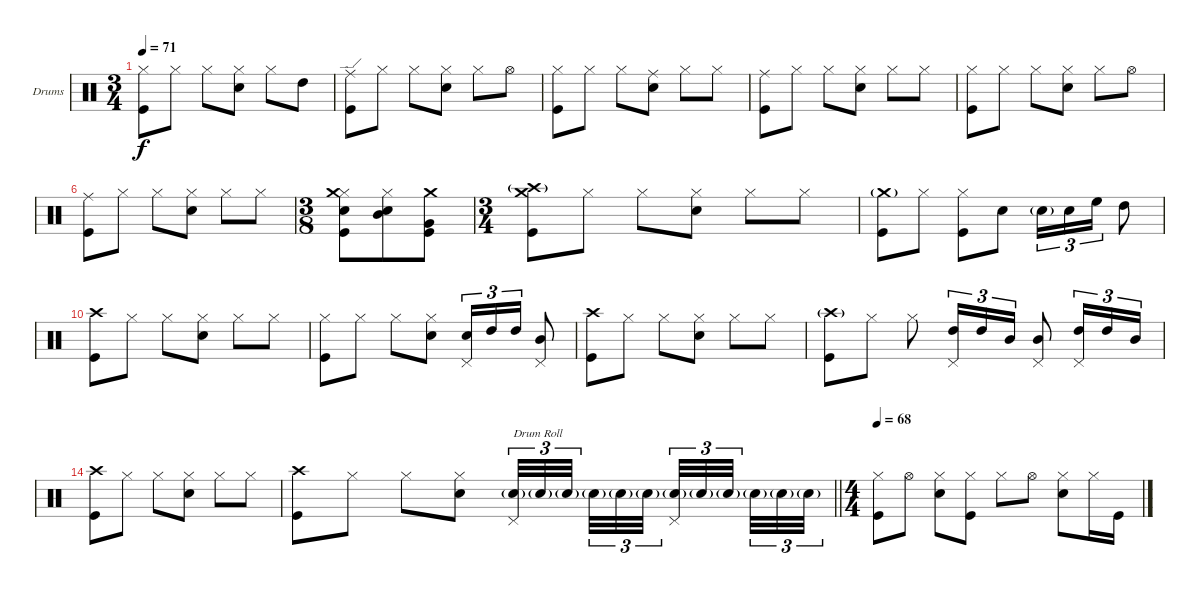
\bracketExtendMode nobrackets
\firstSystemTrackNameOrientation horizontal
\otherSystemsTrackNameOrientation horizontal
\defaultBarNumberDisplay FirstOfSystem
\track ("Drumkit" "Drums") {instrument percussion}
\staff {score}
\articulation defaults
\ts (3 4)
\tempo 71
\clef neutral
\ks c
("Hi-Hat (closed)" "Kick (hit)").8{dy f} "Hi-Hat (closed)".8 "Hi-Hat (closed)".8 ("Hi-Hat (closed)" "Snare (hit) 2").8 "Hi-Hat (closed)".8 "High Tom (hit)".8 |
("Ride (edge)" "Kick (hit)").8 "Hi-Hat (closed)".8 "Hi-Hat (closed)".8 ("Hi-Hat (closed)" "Snare (hit) 2").8 "Hi-Hat (closed)".8 "Hi-Hat (open)".8 |
("Hi-Hat (closed)" "Kick (hit)").8 "Hi-Hat (closed)".8 "Hi-Hat (closed)".8 ("Ride (middle)" "Snare (hit) 2").8 "Hi-Hat (closed)".8 "Hi-Hat (closed)".8 |
("Ride (middle)" "Kick (hit)").8 "Hi-Hat (closed)".8 "Hi-Hat (closed)".8 ("Hi-Hat (closed)" "Snare (hit) 2").8 "Hi-Hat (closed)".8 "Hi-Hat (closed)".8 |
("Hi-Hat (closed)" "Kick (hit)").8 "Hi-Hat (closed)".8 "Hi-Hat (closed)".8 ("Hi-Hat (closed)" "Snare (hit) 2").8 "Hi-Hat (closed)".8 "Hi-Hat (open)".8 |
("Ride (middle)" "Kick (hit)").8 "Hi-Hat (closed)".8 "Hi-Hat (closed)".8 ("Hi-Hat (closed)" "Snare (hit) 2").8 "Hi-Hat (closed)".8 "Hi-Hat (closed)".8 |
\ts (3 8)
("Hi-Hat (closed)" "Snare (hit) 2" "Crash medium (hit)" "Kick (hit)").8 ("Hi-Hat (closed)" "Mid Tom (hit)" "Snare (hit) 2").8 ("Kick (hit)" "Very Low Tom (hit)" "Crash medium (hit)").8 |
\ts (3 4)
("Crash high (hit)"{g} "Kick (hit)" "Crash medium (hit)").8 "Hi-Hat (closed)".8 "Hi-Hat (closed)".8 ("Hi-Hat (closed)" "Snare (hit) 2").8 "Hi-Hat (closed)".8 "Hi-Hat (closed)".8 |
("Crash medium (hit)"{g} "Kick (hit)").8 "Hi-Hat (closed)".8 ("Hi-Hat (closed)" "Kick (hit)").8 "Snare (hit) 2".8 "Snare (hit) 2"{g}.16{tu (3 2)} "Snare (hit) 2".16{tu (3 2)} "High Floor Tom (hit)".16{tu (3 2)} "High Tom (hit)".8 |
("Crash high (hit)" "Kick (hit)").8 "Hi-Hat (closed)".8 "Hi-Hat (closed)".8 ("Hi-Hat (closed)" "Snare (hit) 2").8 "Hi-Hat (closed)".8 "Hi-Hat (closed)".8 |
("Hi-Hat (closed)" "Kick (hit)").8 "Hi-Hat (closed)".8 "Hi-Hat (closed)".8 ("Hi-Hat (closed)" "Snare (hit) 2").8 ("Pedal Hi-Hat (hit)" "Snare (hit) 2").16{tu (3 2)} "High Tom (hit)".16{tu (3 2)} "High Tom (hit)".16{tu (3 2)} ("Pedal Hi-Hat (hit)" "Mid Tom (hit)").8 |
("Crash high (hit)" "Kick (hit)").8 "Hi-Hat (closed)".8 "Hi-Hat (closed)".8 ("Hi-Hat (closed)" "Snare (hit) 2").8 "Hi-Hat (closed)".8 "Hi-Hat (closed)".8 |
("Crash high (hit)"{g} "Kick (hit)").8 "Hi-Hat (closed)".8 "Hi-Hat (closed)".8 ("Pedal Hi-Hat (hit)" "High Tom (hit)").16{tu (3 2)} "High Tom (hit)".16{tu (3 2)} "Mid Tom (hit)".16{tu (3 2)} ("Pedal Hi-Hat (hit)" "Mid Tom (hit)").8 ("Pedal Hi-Hat (hit)" "High Tom (hit)").16{tu (3 2)} "High Tom (hit)".16{tu (3 2)} "Mid Tom (hit)".16{tu (3 2)} |
("Crash high (hit)" "Kick (hit)").8 "Hi-Hat (closed)".8 "Hi-Hat (closed)".8 ("Hi-Hat (closed)" "Snare (hit) 2").8 "Hi-Hat (closed)".8 "Hi-Hat (closed)".8 |
\barLineRight lightlight
("Crash high (hit)" "Kick (hit)").8 "Hi-Hat (closed)".8 "Hi-Hat (closed)".8 ("Hi-Hat (closed)" "Snare (hit) 2").8 ("Pedal Hi-Hat (hit)" "Snare (hit) 2"{g}).32{tu (3 2) txt "Drum Roll"} "Snare (hit) 2"{g}.32{tu (3 2)} "Snare (hit) 2"{g}.32{tu (3 2)} "Snare (hit) 2"{g}.32{tu (3 2)} "Snare (hit) 2"{g}.32{tu (3 2)} "Snare (hit) 2"{g}.32{tu (3 2)} ("Pedal Hi-Hat (hit)" "Snare (hit) 2"{g}).32{tu (3 2)} "Snare (hit) 2"{g}.32{tu (3 2)} "Snare (hit) 2"{g}.32{tu (3 2)} "Snare (hit) 2"{g}.32{tu (3 2)} "Snare (hit) 2"{g}.32{tu (3 2)} "Snare (hit) 2"{g}.32{tu (3 2)} |
\ts (4 4)
\tempo 68
("Hi-Hat (closed)" "Kick (hit)").8 "Hi-Hat (open)".8 ("Hi-Hat (closed)" "Snare (hit) 2").8 ("Hi-Hat (closed)" "Kick (hit)").8 "Hi-Hat (closed)".8 "Hi-Hat (open)".8 ("Hi-Hat (closed)" "Snare (hit) 2").8 "Hi-Hat (closed)".16 "Kick (hit)".16
